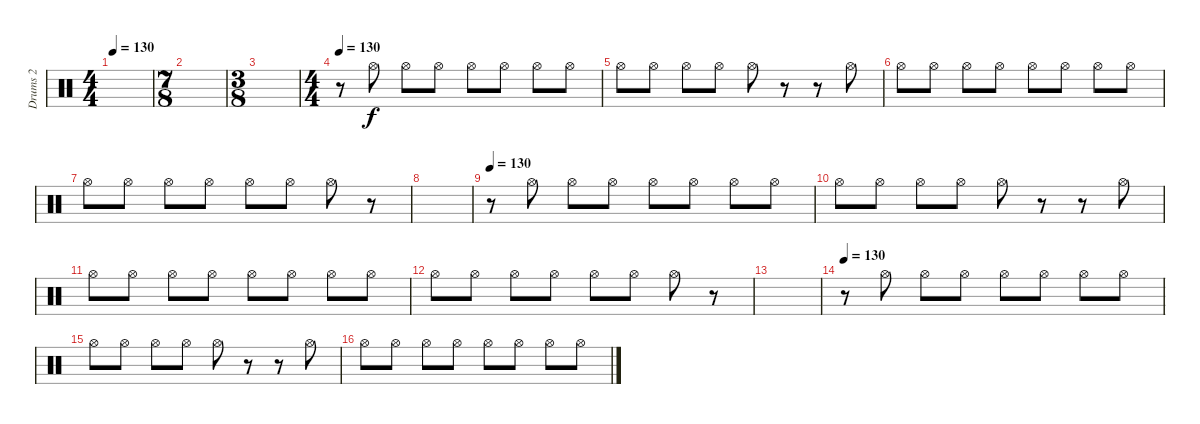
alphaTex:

\track ("Drums 2" "Drums 2") {instrument percussion}
\staff {score}
\articulation defaults
\ts (4 4)
\tempo 130
\clef neutral
\ks c
|
\ts (7 8)
|
\ts (3 8)
|
\ts (4 4)
\tempo 130
r.8 "Hi-Hat (open)".8 "Hi-Hat (open)".8 "Hi-Hat (open)".8 "Hi-Hat (open)".8 "Hi-Hat (open)".8 "Hi-Hat (open)".8 "Hi-Hat (open)".8 |
"Hi-Hat (open)".8 "Hi-Hat (open)".8 "Hi-Hat (open)".8 "Hi-Hat (open)".8 "Hi-Hat (open)".8 r.8 r.8 "Hi-Hat (open)".8 |
"Hi-Hat (open)".8 "Hi-Hat (open)".8 "Hi-Hat (open)".8 "Hi-Hat (open)".8 "Hi-Hat (open)".8 "Hi-Hat (open)".8 "Hi-Hat (open)".8 "Hi-Hat (open)".8 |
"Hi-Hat (open)".8 "Hi-Hat (open)".8 "Hi-Hat (open)".8 "Hi-Hat (open)".8 "Hi-Hat (open)".8 "Hi-Hat (open)".8 "Hi-Hat (open)".8 r.8 |
|
\tempo 130
r.8 "Hi-Hat (open)".8 "Hi-Hat (open)".8 "Hi-Hat (open)".8 "Hi-Hat (open)".8 "Hi-Hat (open)".8 "Hi-Hat (open)".8 "Hi-Hat (open)".8 |
"Hi-Hat (open)".8 "Hi-Hat (open)".8 "Hi-Hat (open)".8 "Hi-Hat (open)".8 "Hi-Hat (open)".8 r.8 r.8 "Hi-Hat (open)".8 |
"Hi-Hat (open)".8 "Hi-Hat (open)".8 "Hi-Hat (open)".8 "Hi-Hat (open)".8 "Hi-Hat (open)".8 "Hi-Hat (open)".8 "Hi-Hat (open)".8 "Hi-Hat (open)".8 |
"Hi-Hat (open)".8 "Hi-Hat (open)".8 "Hi-Hat (open)".8 "Hi-Hat (open)".8 "Hi-Hat (open)".8 "Hi-Hat (open)".8 "Hi-Hat (open)".8 r.8 |
|
\tempo 130
r.8 "Hi-Hat (open)".8 "Hi-Hat (open)".8 "Hi-Hat (open)".8 "Hi-Hat (open)".8 "Hi-Hat (open)".8 "Hi-Hat (open)".8 "Hi-Hat (open)".8 |
"Hi-Hat (open)".8 "Hi-Hat (open)".8 "Hi-Hat (open)".8 "Hi-Hat (open)".8 "Hi-Hat (open)".8 r.8 r.8 "Hi-Hat (open)".8 |
"Hi-Hat (open)".8 "Hi-Hat (open)".8 "Hi-Hat (open)".8 "Hi-Hat (open)".8 "Hi-Hat (open)".8 "Hi-Hat (open)".8 "Hi-Hat (open)".8 "Hi-Hat (open)".8
